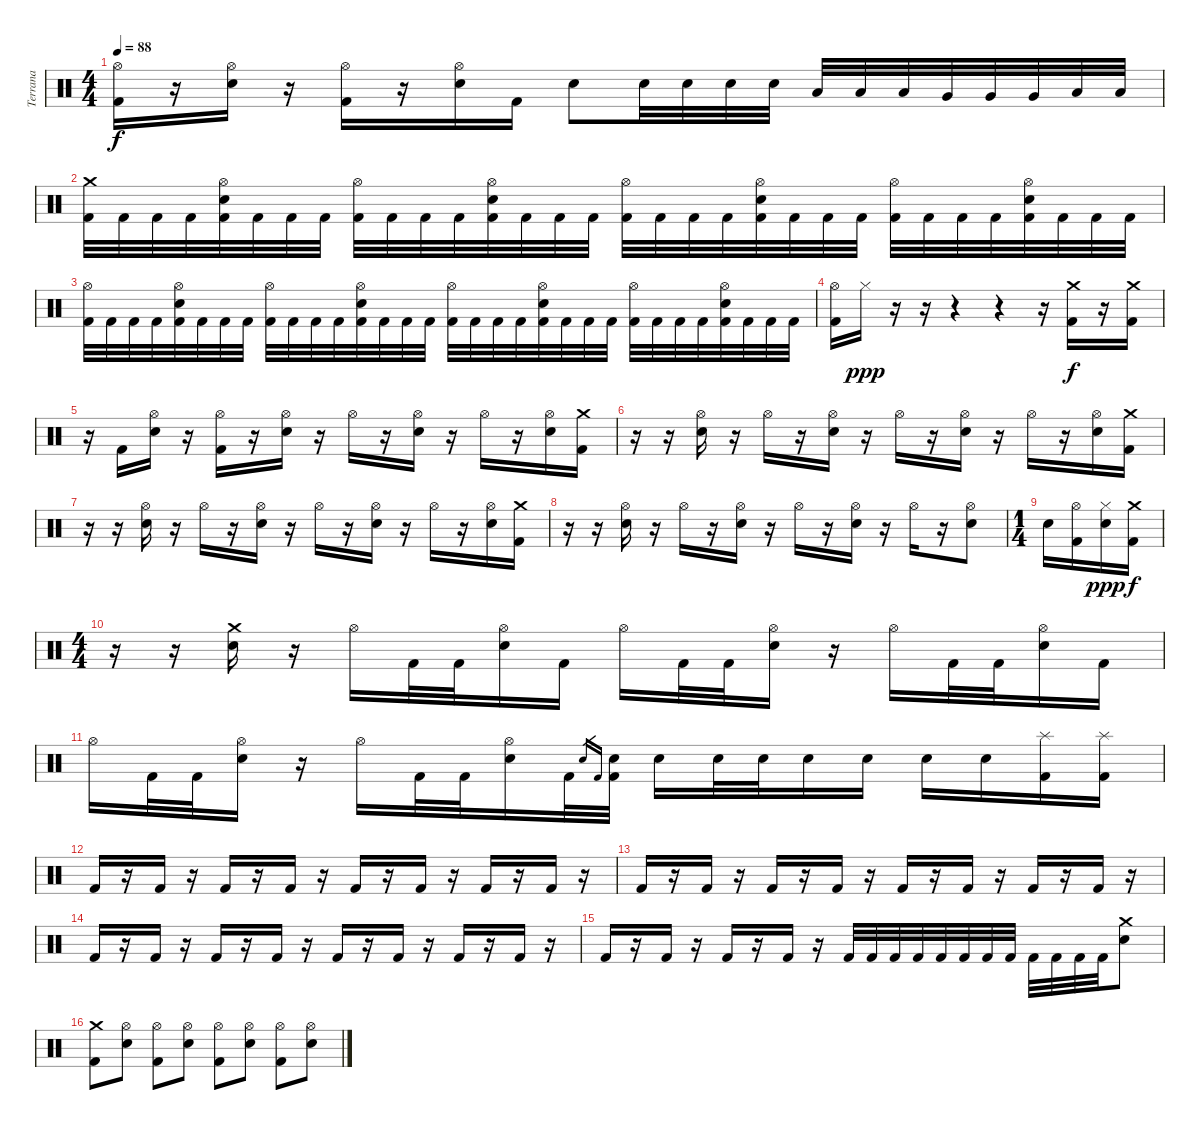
\track ("Terrana" "Terrana") {instrument percussion}
\staff {score}
\articulation defaults
\ts (4 4)
\tempo 88
\clef neutral
\ks c
("Hi-Hat (open)" "Kick (hit) 2").16{dy f} r.16 ("Hi-Hat (open)" "Electric Snare (hit)").16 r.16 ("Hi-Hat (open)" "Kick (hit) 2").16 r.16 ("Hi-Hat (open)" "Electric Snare (hit)").16 "Kick (hit) 2".16 "Electric Snare (hit)".8 "Electric Snare (hit)".32 "Electric Snare (hit)".32 "Electric Snare (hit)".32 "Electric Snare (hit)".32 "Low Tom (hit)".32 "Low Tom (hit)".32 "Low Tom (hit)".32 "Very Low Tom (hit)".32 "Very Low Tom (hit)".32 "Very Low Tom (hit)".32 "Low Floor Tom (hit)".32 "Low Floor Tom (hit)".32 |
("Crash medium (hit)" "Kick (hit) 2").32 "Kick (hit) 2".32 "Kick (hit) 2".32 "Kick (hit) 2".32 ("Hi-Hat (open)" "Electric Snare (hit)" "Kick (hit) 2").32 "Kick (hit) 2".32 "Kick (hit) 2".32 "Kick (hit) 2".32 ("Hi-Hat (open)" "Kick (hit) 2").32 "Kick (hit) 2".32 "Kick (hit) 2".32 "Kick (hit) 2".32 ("Hi-Hat (open)" "Electric Snare (hit)" "Kick (hit) 2").32 "Kick (hit) 2".32 "Kick (hit) 2".32 "Kick (hit) 2".32 ("Hi-Hat (open)" "Kick (hit) 2").32 "Kick (hit) 2".32 "Kick (hit) 2".32 "Kick (hit) 2".32 ("Hi-Hat (open)" "Electric Snare (hit)" "Kick (hit) 2").32 "Kick (hit) 2".32 "Kick (hit) 2".32 "Kick (hit) 2".32 ("Hi-Hat (open)" "Kick (hit) 2").32 "Kick (hit) 2".32 "Kick (hit) 2".32 "Kick (hit) 2".32 ("Hi-Hat (open)" "Electric Snare (hit)" "Kick (hit) 2").32 "Kick (hit) 2".32 "Kick (hit) 2".32 "Kick (hit) 2".32 |
("Hi-Hat (open)" "Kick (hit) 2").32 "Kick (hit) 2".32 "Kick (hit) 2".32 "Kick (hit) 2".32 ("Hi-Hat (open)" "Electric Snare (hit)" "Kick (hit) 2").32 "Kick (hit) 2".32 "Kick (hit) 2".32 "Kick (hit) 2".32 ("Hi-Hat (open)" "Kick (hit) 2").32 "Kick (hit) 2".32 "Kick (hit) 2".32 "Kick (hit) 2".32 ("Hi-Hat (open)" "Electric Snare (hit)" "Kick (hit) 2").32 "Kick (hit) 2".32 "Kick (hit) 2".32 "Kick (hit) 2".32 ("Hi-Hat (open)" "Kick (hit) 2").32 "Kick (hit) 2".32 "Kick (hit) 2".32 "Kick (hit) 2".32 ("Hi-Hat (open)" "Electric Snare (hit)" "Kick (hit) 2").32 "Kick (hit) 2".32 "Kick (hit) 2".32 "Kick (hit) 2".32 ("Hi-Hat (open)" "Kick (hit) 2").32 "Kick (hit) 2".32 "Kick (hit) 2".32 "Kick (hit) 2".32 ("Hi-Hat (open)" "Electric Snare (hit)" "Kick (hit) 2").32 "Kick (hit) 2".32 "Kick (hit) 2".32 "Kick (hit) 2".32 |
("Hi-Hat (open)" "Kick (hit) 2").16 "Hi-Hat (closed)".16{dy ppp} r.16 r.16 r.4 r.4 r.16 ("Crash medium (hit)" "Kick (hit) 2").16{dy f} r.16 ("Crash medium (hit)" "Kick (hit) 2").16 |
r.16 "Kick (hit) 2".16 ("Hi-Hat (open)" "Electric Snare (hit)").16 r.16 ("Hi-Hat (open)" "Kick (hit) 2").16 r.16 ("Hi-Hat (open)" "Electric Snare (hit)").16 r.16 "Hi-Hat (open)".16 r.16 ("Hi-Hat (open)" "Electric Snare (hit)").16 r.16 "Hi-Hat (open)".16 r.16 ("Hi-Hat (open)" "Electric Snare (hit)").16 ("Crash medium (hit)" "Kick (hit) 2").16 |
r.16 r.16 ("Hi-Hat (open)" "Electric Snare (hit)").16 r.16 "Hi-Hat (open)".16 r.16 ("Hi-Hat (open)" "Electric Snare (hit)").16 r.16 "Hi-Hat (open)".16 r.16 ("Hi-Hat (open)" "Electric Snare (hit)").16 r.16 "Hi-Hat (open)".16 r.16 ("Hi-Hat (open)" "Electric Snare (hit)").16 ("Crash medium (hit)" "Kick (hit) 2").16 |
r.16 r.16 ("Hi-Hat (open)" "Electric Snare (hit)").16 r.16 "Hi-Hat (open)".16 r.16 ("Hi-Hat (open)" "Electric Snare (hit)").16 r.16 "Hi-Hat (open)".16 r.16 ("Hi-Hat (open)" "Electric Snare (hit)").16 r.16 "Hi-Hat (open)".16 r.16 ("Hi-Hat (open)" "Electric Snare (hit)").16 ("Crash medium (hit)" "Kick (hit) 2").16 |
r.16 r.16 ("Hi-Hat (open)" "Electric Snare (hit)").16 r.16 "Hi-Hat (open)".16 r.16 ("Hi-Hat (open)" "Electric Snare (hit)").16 r.16 "Hi-Hat (open)".16 r.16 ("Hi-Hat (open)" "Electric Snare (hit)").16 r.16 "Hi-Hat (open)".16 r.16 ("Hi-Hat (open)" "Electric Snare (hit)").8 |
\ts (1 4)
"Electric Snare (hit)".16 ("Hi-Hat (open)" "Kick (hit) 2").16 ("Hi-Hat (closed)" "Electric Snare (hit)").16{dy ppp} ("Crash medium (hit)" "Kick (hit) 2").16{dy f} |
\ts (4 4)
r.16 r.16 ("Crash medium (hit)" "Electric Snare (hit)").16 r.16 "Hi-Hat (open)".16 "Kick (hit) 2".32 "Kick (hit) 2".32 ("Hi-Hat (open)" "Electric Snare (hit)").16 "Kick (hit) 2".16 "Hi-Hat (open)".16 "Kick (hit) 2".32 "Kick (hit) 2".32 ("Hi-Hat (open)" "Electric Snare (hit)").16 r.16 "Hi-Hat (open)".16 "Kick (hit) 2".32 "Kick (hit) 2".32 ("Hi-Hat (open)" "Electric Snare (hit)").16 "Kick (hit) 2".16 |
"Hi-Hat (open)".16 "Kick (hit) 2".32 "Kick (hit) 2".32 ("Hi-Hat (open)" "Electric Snare (hit)").16 r.16 "Hi-Hat (open)".16 "Kick (hit) 2".32 "Kick (hit) 2".32 ("Hi-Hat (open)" "Electric Snare (hit)").16 "Kick (hit) 2".32 "Electric Snare (hit)".16{gr} "Kick (hit) 2".16{gr} ("Electric Snare (hit)" "Kick (hit) 2").32 "Electric Snare (hit)".16 "Electric Snare (hit)".32 "Electric Snare (hit)".32 "Electric Snare (hit)".16 "Electric Snare (hit)".16 "Electric Snare (hit)".16 "Electric Snare (hit)".16 ("Splash (hit)" "Kick (hit) 2").16 ("Splash (hit)" "Kick (hit) 2").16 |
"Kick (hit) 2".16 r.16 "Kick (hit) 2".16 r.16 "Kick (hit) 2".16 r.16 "Kick (hit) 2".16 r.16 "Kick (hit) 2".16 r.16 "Kick (hit) 2".16 r.16 "Kick (hit) 2".16 r.16 "Kick (hit) 2".16 r.16 |
"Kick (hit) 2".16 r.16 "Kick (hit) 2".16 r.16 "Kick (hit) 2".16 r.16 "Kick (hit) 2".16 r.16 "Kick (hit) 2".16 r.16 "Kick (hit) 2".16 r.16 "Kick (hit) 2".16 r.16 "Kick (hit) 2".16 r.16 |
"Kick (hit) 2".16 r.16 "Kick (hit) 2".16 r.16 "Kick (hit) 2".16 r.16 "Kick (hit) 2".16 r.16 "Kick (hit) 2".16 r.16 "Kick (hit) 2".16 r.16 "Kick (hit) 2".16 r.16 "Kick (hit) 2".16 r.16 |
"Kick (hit) 2".16 r.16 "Kick (hit) 2".16 r.16 "Kick (hit) 2".16 r.16 "Kick (hit) 2".16 r.16 "Kick (hit) 2".32 "Kick (hit) 2".32 "Kick (hit) 2".32 "Kick (hit) 2".32 "Kick (hit) 2".32 "Kick (hit) 2".32 "Kick (hit) 2".32 "Kick (hit) 2".32 "Kick (hit) 2".32 "Kick (hit) 2".32 "Kick (hit) 2".32 "Kick (hit) 2".32 ("Crash medium (hit)" "Electric Snare (hit)").8 |
("Crash medium (hit)" "Kick (hit) 2").8 ("Hi-Hat (open)" "Electric Snare (hit)").8 ("Hi-Hat (open)" "Kick (hit) 2").8 ("Hi-Hat (open)" "Electric Snare (hit)").8 ("Hi-Hat (open)" "Kick (hit) 2").8 ("Hi-Hat (open)" "Electric Snare (hit)").8 ("Hi-Hat (open)" "Kick (hit) 2").8 ("Hi-Hat (open)" "Electric Snare (hit)").8
